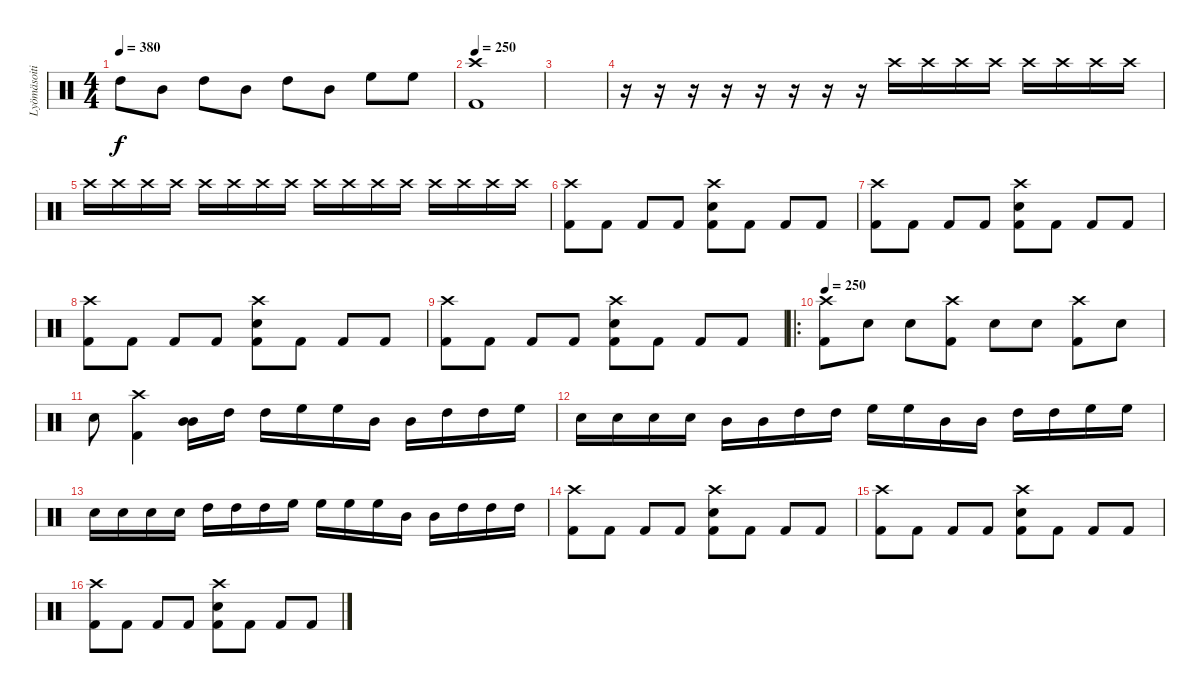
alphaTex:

\track ("Lyömäsoitin" "Lyömäsoiti") {instrument percussion}
\staff {score}
\articulation defaults
\ts (4 4)
\tempo 380
\clef neutral
\ks c "High Tom (hit)".8{dy f} "Mid Tom (hit)".8 "High Tom (hit)".8 "Mid Tom (hit)".8 "High Tom (hit)".8 "Mid Tom (hit)".8 "High Floor Tom (hit)".8 "High Floor Tom (hit)".8
|
\tempo 250
("Crash high (hit)" "Kick (hit) 2").1 |
|
r.16 r.16 r.16 r.16 r.16 r.16 r.16 r.16 "Crash high (hit)".16 "Crash high (hit)".16 "Crash high (hit)".16 "Crash high (hit)".16 "Crash high (hit)".16 "Crash high (hit)".16 "Crash high (hit)".16 "Crash high (hit)".16 |
"Crash high (hit)".16 "Crash high (hit)".16 "Crash high (hit)".16 "Crash high (hit)".16 "Crash high (hit)".16 "Crash high (hit)".16 "Crash high (hit)".16 "Crash high (hit)".16 "Crash high (hit)".16 "Crash high (hit)".16 "Crash high (hit)".16 "Crash high (hit)".16 "Crash high (hit)".16 "Crash high (hit)".16 "Crash high (hit)".16 "Crash high (hit)".16 |
("Crash high (hit)" "Kick (hit) 2").8 "Kick (hit) 2".8 "Kick (hit) 2".8 "Kick (hit) 2".8 ("Crash high (hit)" "Electric Snare (hit)" "Kick (hit) 2").8 "Kick (hit) 2".8 "Kick (hit) 2".8 "Kick (hit) 2".8 |
("Crash high (hit)" "Kick (hit) 2").8 "Kick (hit) 2".8 "Kick (hit) 2".8 "Kick (hit) 2".8 ("Crash high (hit)" "Electric Snare (hit)" "Kick (hit) 2").8 "Kick (hit) 2".8 "Kick (hit) 2".8 "Kick (hit) 2".8 |
("Crash high (hit)" "Kick (hit) 2").8 "Kick (hit) 2".8 "Kick (hit) 2".8 "Kick (hit) 2".8 ("Crash high (hit)" "Electric Snare (hit)" "Kick (hit) 2").8 "Kick (hit) 2".8 "Kick (hit) 2".8 "Kick (hit) 2".8 |
("Crash high (hit)" "Kick (hit) 2").8 "Kick (hit) 2".8 "Kick (hit) 2".8 "Kick (hit) 2".8 ("Crash high (hit)" "Electric Snare (hit)" "Kick (hit) 2").8 "Kick (hit) 2".8 "Kick (hit) 2".8 "Kick (hit) 2".8 |
\ro
\tempo 250
("Crash high (hit)" "Kick (hit) 2").8 "Electric Snare (hit)".8 "Electric Snare (hit)".8 ("Crash high (hit)" "Kick (hit) 2").8 "Electric Snare (hit)".8 "Electric Snare (hit)".8 ("Crash high (hit)" "Kick (hit) 2").8 "Electric Snare (hit)".8 |
"Electric Snare (hit)".8 ("Crash high (hit)" "Kick (hit) 2").4 ("Mid Tom (hit)" "Mid Tom (hit)").16 "High Tom (hit)".16 "High Tom (hit)".16 "High Floor Tom (hit)".16 "High Floor Tom (hit)".16 "Mid Tom (hit)".16 "Mid Tom (hit)".16 "High Tom (hit)".16 "High Tom (hit)".16 "High Floor Tom (hit)".16 |
"Electric Snare (hit)".16 "Electric Snare (hit)".16 "Electric Snare (hit)".16 "Electric Snare (hit)".16 "Mid Tom (hit)".16 "Mid Tom (hit)".16 "High Tom (hit)".16 "High Tom (hit)".16 "High Floor Tom (hit)".16 "High Floor Tom (hit)".16 "Mid Tom (hit)".16 "Mid Tom (hit)".16 "High Tom (hit)".16 "High Tom (hit)".16 "High Floor Tom (hit)".16 "High Floor Tom (hit)".16 |
"Electric Snare (hit)".16 "Electric Snare (hit)".16 "Electric Snare (hit)".16 "Electric Snare (hit)".16 "High Tom (hit)".16 "High Tom (hit)".16 "High Tom (hit)".16 "High Floor Tom (hit)".16 "High Floor Tom (hit)".16 "High Floor Tom (hit)".16 "High Floor Tom (hit)".16 "Mid Tom (hit)".16 "Mid Tom (hit)".16 "High Tom (hit)".16 "High Tom (hit)".16 "High Tom (hit)".16 |
("Crash high (hit)" "Kick (hit) 2").8 "Kick (hit) 2".8 "Kick (hit) 2".8 "Kick (hit) 2".8 ("Crash high (hit)" "Electric Snare (hit)" "Kick (hit) 2").8 "Kick (hit) 2".8 "Kick (hit) 2".8 "Kick (hit) 2".8 |
("Crash high (hit)" "Kick (hit) 2").8 "Kick (hit) 2".8 "Kick (hit) 2".8 "Kick (hit) 2".8 ("Crash high (hit)" "Electric Snare (hit)" "Kick (hit) 2").8 "Kick (hit) 2".8 "Kick (hit) 2".8 "Kick (hit) 2".8 |
("Crash high (hit)" "Kick (hit) 2").8 "Kick (hit) 2".8 "Kick (hit) 2".8 "Kick (hit) 2".8 ("Crash high (hit)" "Electric Snare (hit)" "Kick (hit) 2").8 "Kick (hit) 2".8 "Kick (hit) 2".8 "Kick (hit) 2".8
